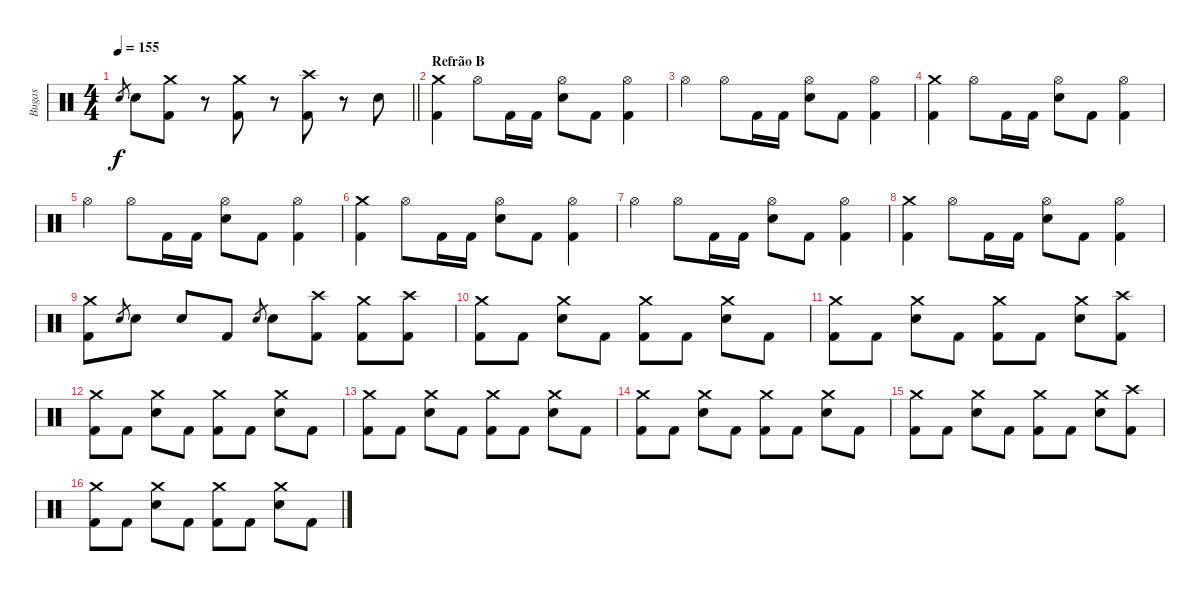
\track ("Bugas" "Bugas") {instrument percussion}
\staff {score}
\articulation defaults
\ts (4 4)
\tempo 155
\clef neutral
\barLineRight lightlight
\ks c "Electric Snare (hit)".8{gr dy f} "Electric Snare (hit)".8
("Crash medium (hit)" "Kick (hit) 2").8 r.8 ("Crash medium (hit)" "Kick (hit) 2").8 r.8 ("Crash high (hit)" "Kick (hit) 2").8 r.8 "Electric Snare (hit)".8 |
\section ("" "Refrão B")
("Crash medium (hit)" "Kick (hit) 2").4 "Hi-Hat (open)".8 "Kick (hit) 2".16 "Kick (hit) 2".16 ("Hi-Hat (open)" "Electric Snare (hit)").8 "Kick (hit) 2".8 ("Hi-Hat (open)" "Kick (hit) 2").4 |
"Hi-Hat (open)".4 "Hi-Hat (open)".8 "Kick (hit) 2".16 "Kick (hit) 2".16 ("Hi-Hat (open)" "Electric Snare (hit)").8 "Kick (hit) 2".8 ("Hi-Hat (open)" "Kick (hit) 2").4 |
("Crash medium (hit)" "Kick (hit) 2").4 "Hi-Hat (open)".8 "Kick (hit) 2".16 "Kick (hit) 2".16 ("Hi-Hat (open)" "Electric Snare (hit)").8 "Kick (hit) 2".8 ("Hi-Hat (open)" "Kick (hit) 2").4 |
"Hi-Hat (open)".4 "Hi-Hat (open)".8 "Kick (hit) 2".16 "Kick (hit) 2".16 ("Hi-Hat (open)" "Electric Snare (hit)").8 "Kick (hit) 2".8 ("Hi-Hat (open)" "Kick (hit) 2").4 |
("Crash medium (hit)" "Kick (hit) 2").4 "Hi-Hat (open)".8 "Kick (hit) 2".16 "Kick (hit) 2".16 ("Hi-Hat (open)" "Electric Snare (hit)").8 "Kick (hit) 2".8 ("Hi-Hat (open)" "Kick (hit) 2").4 |
"Hi-Hat (open)".4 "Hi-Hat (open)".8 "Kick (hit) 2".16 "Kick (hit) 2".16 ("Hi-Hat (open)" "Electric Snare (hit)").8 "Kick (hit) 2".8 ("Hi-Hat (open)" "Kick (hit) 2").4 |
("Crash medium (hit)" "Kick (hit) 2").4 "Hi-Hat (open)".8 "Kick (hit) 2".16 "Kick (hit) 2".16 ("Hi-Hat (open)" "Electric Snare (hit)").8 "Kick (hit) 2".8 ("Hi-Hat (open)" "Kick (hit) 2").4 |
("Crash medium (hit)" "Kick (hit) 2").8 "Electric Snare (hit)".8{gr} "Electric Snare (hit)".8 "Electric Snare (hit)".8 "Kick (hit) 2".8 "Electric Snare (hit)".8{gr} "Electric Snare (hit)".8 ("Crash high (hit)" "Kick (hit) 2").8 ("Crash medium (hit)" "Kick (hit) 2").8 ("Crash high (hit)" "Kick (hit) 2").8 |
("Crash medium (hit)" "Kick (hit) 2").8 "Kick (hit) 2".8 ("Crash medium (hit)" "Electric Snare (hit)").8 "Kick (hit) 2".8 ("Crash medium (hit)" "Kick (hit) 2").8 "Kick (hit) 2".8 ("Crash medium (hit)" "Electric Snare (hit)").8 "Kick (hit) 2".8 |
("Crash medium (hit)" "Kick (hit) 2").8 "Kick (hit) 2".8 ("Crash medium (hit)" "Electric Snare (hit)").8 "Kick (hit) 2".8 ("Crash medium (hit)" "Kick (hit) 2").8 "Kick (hit) 2".8 ("Crash medium (hit)" "Electric Snare (hit)").8 ("Crash high (hit)" "Kick (hit) 2").8 |
("Crash medium (hit)" "Kick (hit) 2").8 "Kick (hit) 2".8 ("Crash medium (hit)" "Electric Snare (hit)").8 "Kick (hit) 2".8 ("Crash medium (hit)" "Kick (hit) 2").8 "Kick (hit) 2".8 ("Crash medium (hit)" "Electric Snare (hit)").8 "Kick (hit) 2".8 |
("Crash medium (hit)" "Kick (hit) 2").8 "Kick (hit) 2".8 ("Crash medium (hit)" "Electric Snare (hit)").8 "Kick (hit) 2".8 ("Crash medium (hit)" "Kick (hit) 2").8 "Kick (hit) 2".8 ("Crash medium (hit)" "Electric Snare (hit)").8 "Kick (hit) 2".8 |
("Crash medium (hit)" "Kick (hit) 2").8 "Kick (hit) 2".8 ("Crash medium (hit)" "Electric Snare (hit)").8 "Kick (hit) 2".8 ("Crash medium (hit)" "Kick (hit) 2").8 "Kick (hit) 2".8 ("Crash medium (hit)" "Electric Snare (hit)").8 "Kick (hit) 2".8 |
("Crash medium (hit)" "Kick (hit) 2").8 "Kick (hit) 2".8 ("Crash medium (hit)" "Electric Snare (hit)").8 "Kick (hit) 2".8 ("Crash medium (hit)" "Kick (hit) 2").8 "Kick (hit) 2".8 ("Crash medium (hit)" "Electric Snare (hit)").8 ("Crash high (hit)" "Kick (hit) 2").8 |
("Crash medium (hit)" "Kick (hit) 2").8 "Kick (hit) 2".8 ("Crash medium (hit)" "Electric Snare (hit)").8 "Kick (hit) 2".8 ("Crash medium (hit)" "Kick (hit) 2").8 "Kick (hit) 2".8 ("Crash medium (hit)" "Electric Snare (hit)").8 "Kick (hit) 2".8
